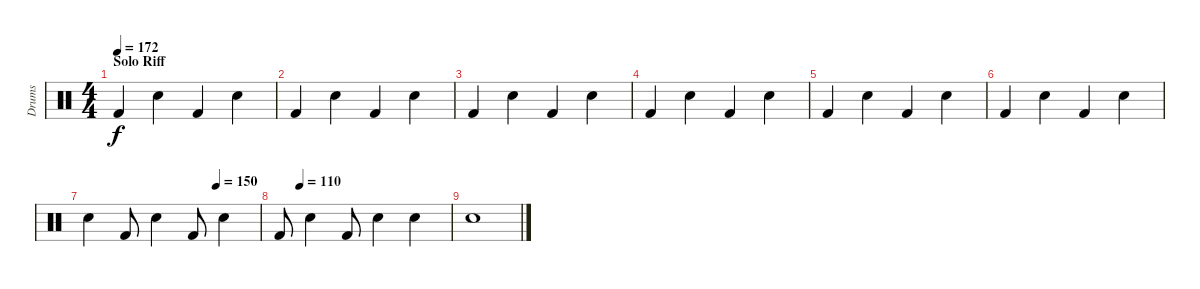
\track ("Drums" "Drums") {instrument percussion}
\staff {score}
\articulation defaults
\ts (4 4)
\section ("" "Solo Riff")
\tempo 172
\clef neutral
\ks c "Kick (hit) 2".4{dy f} "Snare (hit) 2".4 "Kick (hit) 2".4 "Snare (hit) 2".4
|
"Kick (hit) 2".4 "Snare (hit) 2".4 "Kick (hit) 2".4 "Snare (hit) 2".4 |
"Kick (hit) 2".4 "Snare (hit) 2".4 "Kick (hit) 2".4 "Snare (hit) 2".4 |
"Kick (hit) 2".4 "Snare (hit) 2".4 "Kick (hit) 2".4 "Snare (hit) 2".4 |
"Kick (hit) 2".4 "Snare (hit) 2".4 "Kick (hit) 2".4 "Snare (hit) 2".4 |
"Kick (hit) 2".4 "Snare (hit) 2".4 "Kick (hit) 2".4 "Snare (hit) 2".4 |
\tempo (150 0.75)
"Snare (hit) 2".4 "Kick (hit) 2".8 "Snare (hit) 2".4 "Kick (hit) 2".8 "Snare (hit) 2".4 |
\tempo (110 0.125)
"Kick (hit) 2".8 "Snare (hit) 2".4 "Kick (hit) 2".8 "Snare (hit) 2".4 "Snare (hit) 2".4 |
"Snare (hit) 2".1
